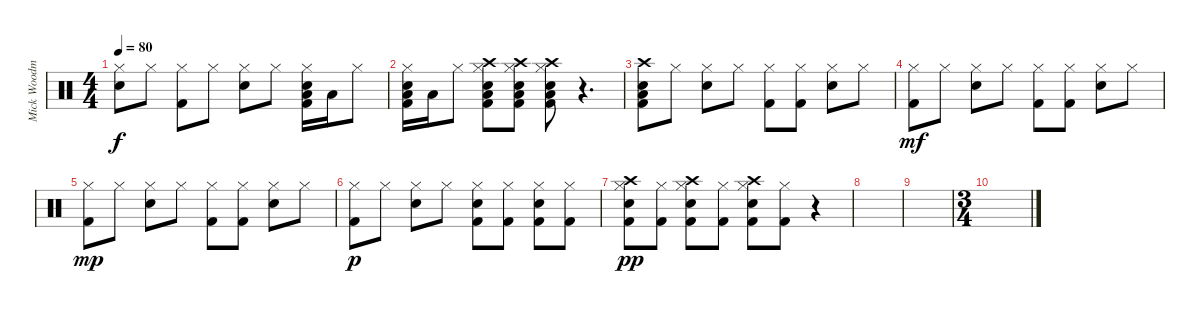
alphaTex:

\track ("Mick Woodmansey" "Mick Woodm") {instrument percussion}
\staff {score}
\articulation defaults
\ts (4 4)
\tempo 80
\clef neutral
\ks c
("Hi-Hat (closed)" "Snare (hit) 2").8{dy f} "Hi-Hat (closed)".8 ("Kick (hit) 2" "Hi-Hat (closed)").8 "Hi-Hat (closed)".8 ("Hi-Hat (closed)" "Snare (hit) 2").8 "Hi-Hat (closed)".8 ("Low Floor Tom (hit)" "Snare (hit) 2" "Hi-Hat (closed)" "Kick (hit) 2").16 "Low Floor Tom (hit)".16 "Hi-Hat (closed)".8 |
("Low Floor Tom (hit)" "Kick (hit) 2" "Hi-Hat (closed)" "Snare (hit) 2").16 "Low Floor Tom (hit)".16 "Hi-Hat (closed)".8 ("Low Floor Tom (hit)" "Crash high (hit)" "Hi-Hat (closed)" "Kick (hit) 2" "Snare (hit) 2").8 ("Low Floor Tom (hit)" "Snare (hit) 2" "Hi-Hat (closed)" "Crash high (hit)" "Kick (hit) 2").8 ("Low Floor Tom (hit)" "Snare (hit) 2" "Crash high (hit)" "Kick (hit) 2" "Hi-Hat (closed)").8 r.4{d} |
("Low Floor Tom (hit)" "Crash high (hit)" "Kick (hit) 2" "Snare (hit) 2").8 "Hi-Hat (closed)".8 ("Hi-Hat (closed)" "Snare (hit) 2").8 "Hi-Hat (closed)".8 ("Hi-Hat (closed)" "Kick (hit) 2").8 ("Kick (hit) 2" "Hi-Hat (closed)").8 ("Snare (hit) 2" "Hi-Hat (closed)").8 "Hi-Hat (closed)".8 |
("Hi-Hat (closed)" "Kick (hit) 2").8{dy mf} "Hi-Hat (closed)".8 ("Snare (hit) 2" "Hi-Hat (closed)").8 "Hi-Hat (closed)".8 ("Hi-Hat (closed)" "Kick (hit) 2").8 ("Kick (hit) 2" "Hi-Hat (closed)").8 ("Hi-Hat (closed)" "Snare (hit) 2").8 "Hi-Hat (closed)".8 |
("Kick (hit) 2" "Hi-Hat (closed)").8{dy mp} "Hi-Hat (closed)".8 ("Hi-Hat (closed)" "Snare (hit) 2").8 "Hi-Hat (closed)".8 ("Hi-Hat (closed)" "Kick (hit) 2").8 ("Hi-Hat (closed)" "Kick (hit) 2").8 ("Hi-Hat (closed)" "Snare (hit) 2").8 "Hi-Hat (closed)".8 |
("Kick (hit) 2" "Hi-Hat (closed)").8{dy p} "Hi-Hat (closed)".8 ("Hi-Hat (closed)" "Snare (hit) 2").8 "Hi-Hat (closed)".8 ("Snare (hit) 2" "Hi-Hat (closed)" "Kick (hit) 2").8 ("Kick (hit) 2" "Hi-Hat (closed)").8 ("Kick (hit) 2" "Hi-Hat (closed)" "Snare (hit) 2").8 ("Kick (hit) 2" "Hi-Hat (closed)").8 |
("Crash high (hit)" "Hi-Hat (closed)" "Kick (hit) 2" "Snare (hit) 2").8{dy pp} ("Hi-Hat (closed)" "Kick (hit) 2").8 ("Snare (hit) 2" "Hi-Hat (closed)" "Crash high (hit)" "Kick (hit) 2").8 ("Kick (hit) 2" "Hi-Hat (closed)").8 ("Snare (hit) 2" "Crash high (hit)" "Kick (hit) 2" "Hi-Hat (closed)").8 ("Hi-Hat (closed)" "Kick (hit) 2").8 r.4 |
|
|
\ts (3 4)
